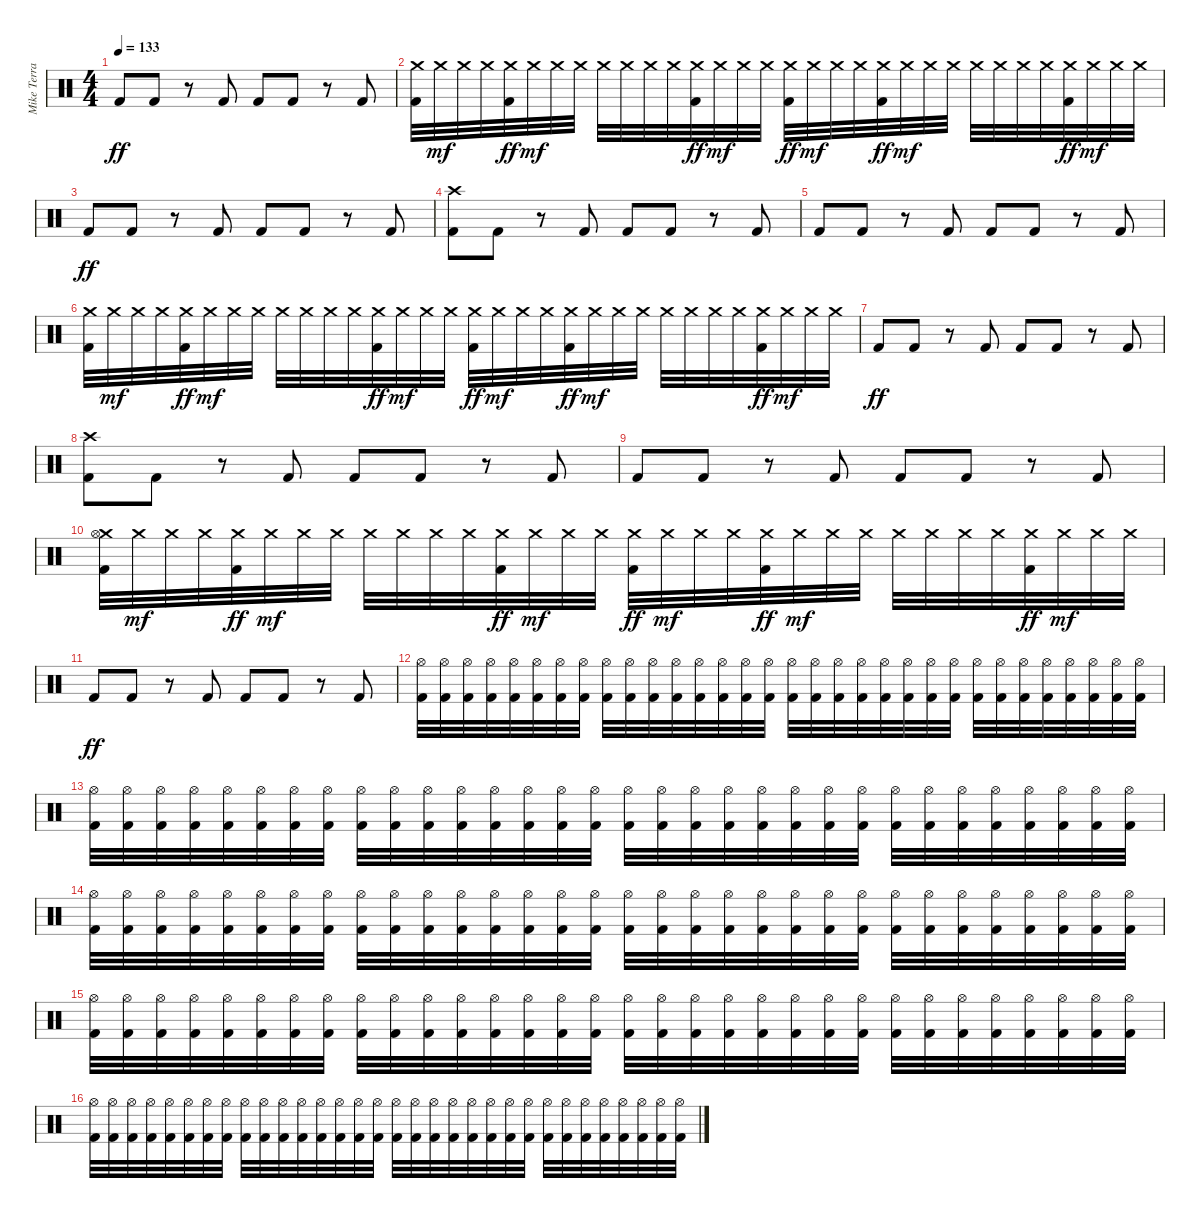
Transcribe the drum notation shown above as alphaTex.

\track ("Mike Terrana" "Mike Terra") {instrument percussion}
\staff {score}
\articulation defaults
\ts (4 4)
\tempo 133
\clef neutral
\ks c "Kick (hit) 2".8{dy ff} "Kick (hit) 2".8
r.8 "Kick (hit) 2".8 "Kick (hit) 2".8 "Kick (hit) 2".8 r.8 "Kick (hit) 2".8 |
("Crash medium (hit)" "Kick (hit) 2").32 "Crash medium (hit)".32{dy mf} "Crash medium (hit)".32 "Crash medium (hit)".32 ("Crash medium (hit)" "Kick (hit) 2").32{dy ff} "Crash medium (hit)".32{dy mf} "Crash medium (hit)".32 "Crash medium (hit)".32 "Crash medium (hit)".32 "Crash medium (hit)".32 "Crash medium (hit)".32 "Crash medium (hit)".32 ("Crash medium (hit)" "Kick (hit) 2").32{dy ff} "Crash medium (hit)".32{dy mf} "Crash medium (hit)".32 "Crash medium (hit)".32 ("Crash medium (hit)" "Kick (hit) 2").32{dy ff} "Crash medium (hit)".32{dy mf} "Crash medium (hit)".32 "Crash medium (hit)".32 ("Crash medium (hit)" "Kick (hit) 2").32{dy ff} "Crash medium (hit)".32{dy mf} "Crash medium (hit)".32 "Crash medium (hit)".32 "Crash medium (hit)".32 "Crash medium (hit)".32 "Crash medium (hit)".32 "Crash medium (hit)".32 ("Crash medium (hit)" "Kick (hit) 2").32{dy ff} "Crash medium (hit)".32{dy mf} "Crash medium (hit)".32 "Crash medium (hit)".32 |
"Kick (hit) 2".8{dy ff} "Kick (hit) 2".8 r.8 "Kick (hit) 2".8 "Kick (hit) 2".8 "Kick (hit) 2".8 r.8 "Kick (hit) 2".8 |
("Crash high (hit)" "Kick (hit) 2").8 "Kick (hit) 2".8 r.8 "Kick (hit) 2".8 "Kick (hit) 2".8 "Kick (hit) 2".8 r.8 "Kick (hit) 2".8 |
"Kick (hit) 2".8 "Kick (hit) 2".8 r.8 "Kick (hit) 2".8 "Kick (hit) 2".8 "Kick (hit) 2".8 r.8 "Kick (hit) 2".8 |
("Crash medium (hit)" "Kick (hit) 2").32 "Crash medium (hit)".32{dy mf} "Crash medium (hit)".32 "Crash medium (hit)".32 ("Crash medium (hit)" "Kick (hit) 2").32{dy ff} "Crash medium (hit)".32{dy mf} "Crash medium (hit)".32 "Crash medium (hit)".32 "Crash medium (hit)".32 "Crash medium (hit)".32 "Crash medium (hit)".32 "Crash medium (hit)".32 ("Crash medium (hit)" "Kick (hit) 2").32{dy ff} "Crash medium (hit)".32{dy mf} "Crash medium (hit)".32 "Crash medium (hit)".32 ("Crash medium (hit)" "Kick (hit) 2").32{dy ff} "Crash medium (hit)".32{dy mf} "Crash medium (hit)".32 "Crash medium (hit)".32 ("Crash medium (hit)" "Kick (hit) 2").32{dy ff} "Crash medium (hit)".32{dy mf} "Crash medium (hit)".32 "Crash medium (hit)".32 "Crash medium (hit)".32 "Crash medium (hit)".32 "Crash medium (hit)".32 "Crash medium (hit)".32 ("Crash medium (hit)" "Kick (hit) 2").32{dy ff} "Crash medium (hit)".32{dy mf} "Crash medium (hit)".32 "Crash medium (hit)".32 |
"Kick (hit) 2".8{dy ff} "Kick (hit) 2".8 r.8 "Kick (hit) 2".8 "Kick (hit) 2".8 "Kick (hit) 2".8 r.8 "Kick (hit) 2".8 |
("Crash high (hit)" "Kick (hit) 2").8 "Kick (hit) 2".8 r.8 "Kick (hit) 2".8 "Kick (hit) 2".8 "Kick (hit) 2".8 r.8 "Kick (hit) 2".8 |
"Kick (hit) 2".8 "Kick (hit) 2".8 r.8 "Kick (hit) 2".8 "Kick (hit) 2".8 "Kick (hit) 2".8 r.8 "Kick (hit) 2".8 |
("Crash medium (hit)" "Hi-Hat (open)" "Kick (hit) 2").32 "Crash medium (hit)".32{dy mf} "Crash medium (hit)".32 "Crash medium (hit)".32 ("Crash medium (hit)" "Kick (hit) 2").32{dy ff} "Crash medium (hit)".32{dy mf} "Crash medium (hit)".32 "Crash medium (hit)".32 "Crash medium (hit)".32 "Crash medium (hit)".32 "Crash medium (hit)".32 "Crash medium (hit)".32 ("Crash medium (hit)" "Kick (hit) 2").32{dy ff} "Crash medium (hit)".32{dy mf} "Crash medium (hit)".32 "Crash medium (hit)".32 ("Crash medium (hit)" "Kick (hit) 2").32{dy ff} "Crash medium (hit)".32{dy mf} "Crash medium (hit)".32 "Crash medium (hit)".32 ("Crash medium (hit)" "Kick (hit) 2").32{dy ff} "Crash medium (hit)".32{dy mf} "Crash medium (hit)".32 "Crash medium (hit)".32 "Crash medium (hit)".32 "Crash medium (hit)".32 "Crash medium (hit)".32 "Crash medium (hit)".32 ("Crash medium (hit)" "Kick (hit) 2").32{dy ff} "Crash medium (hit)".32{dy mf} "Crash medium (hit)".32 "Crash medium (hit)".32 |
"Kick (hit) 2".8{dy ff} "Kick (hit) 2".8 r.8 "Kick (hit) 2".8 "Kick (hit) 2".8 "Kick (hit) 2".8 r.8 "Kick (hit) 2".8 |
("Hi-Hat (open)" "Kick (hit) 2").32 ("Hi-Hat (open)" "Kick (hit) 2").32 ("Hi-Hat (open)" "Kick (hit) 2").32 ("Hi-Hat (open)" "Kick (hit) 2").32 ("Hi-Hat (open)" "Kick (hit) 2").32 ("Hi-Hat (open)" "Kick (hit) 2").32 ("Hi-Hat (open)" "Kick (hit) 2").32 ("Hi-Hat (open)" "Kick (hit) 2").32 ("Hi-Hat (open)" "Kick (hit) 2").32 ("Hi-Hat (open)" "Kick (hit) 2").32 ("Hi-Hat (open)" "Kick (hit) 2").32 ("Hi-Hat (open)" "Kick (hit) 2").32 ("Hi-Hat (open)" "Kick (hit) 2").32 ("Hi-Hat (open)" "Kick (hit) 2").32 ("Hi-Hat (open)" "Kick (hit) 2").32 ("Hi-Hat (open)" "Kick (hit) 2").32 ("Hi-Hat (open)" "Kick (hit) 2").32 ("Hi-Hat (open)" "Kick (hit) 2").32 ("Hi-Hat (open)" "Kick (hit) 2").32 ("Hi-Hat (open)" "Kick (hit) 2").32 ("Hi-Hat (open)" "Kick (hit) 2").32 ("Hi-Hat (open)" "Kick (hit) 2").32 ("Hi-Hat (open)" "Kick (hit) 2").32 ("Hi-Hat (open)" "Kick (hit) 2").32 ("Hi-Hat (open)" "Kick (hit) 2").32 ("Hi-Hat (open)" "Kick (hit) 2").32 ("Hi-Hat (open)" "Kick (hit) 2").32 ("Hi-Hat (open)" "Kick (hit) 2").32 ("Hi-Hat (open)" "Kick (hit) 2").32 ("Hi-Hat (open)" "Kick (hit) 2").32 ("Hi-Hat (open)" "Kick (hit) 2").32 ("Hi-Hat (open)" "Kick (hit) 2").32 |
("Hi-Hat (open)" "Kick (hit) 2").32 ("Hi-Hat (open)" "Kick (hit) 2").32 ("Hi-Hat (open)" "Kick (hit) 2").32 ("Hi-Hat (open)" "Kick (hit) 2").32 ("Hi-Hat (open)" "Kick (hit) 2").32 ("Hi-Hat (open)" "Kick (hit) 2").32 ("Hi-Hat (open)" "Kick (hit) 2").32 ("Hi-Hat (open)" "Kick (hit) 2").32 ("Hi-Hat (open)" "Kick (hit) 2").32 ("Hi-Hat (open)" "Kick (hit) 2").32 ("Hi-Hat (open)" "Kick (hit) 2").32 ("Hi-Hat (open)" "Kick (hit) 2").32 ("Hi-Hat (open)" "Kick (hit) 2").32 ("Hi-Hat (open)" "Kick (hit) 2").32 ("Hi-Hat (open)" "Kick (hit) 2").32 ("Hi-Hat (open)" "Kick (hit) 2").32 ("Hi-Hat (open)" "Kick (hit) 2").32 ("Hi-Hat (open)" "Kick (hit) 2").32 ("Hi-Hat (open)" "Kick (hit) 2").32 ("Hi-Hat (open)" "Kick (hit) 2").32 ("Hi-Hat (open)" "Kick (hit) 2").32 ("Hi-Hat (open)" "Kick (hit) 2").32 ("Hi-Hat (open)" "Kick (hit) 2").32 ("Hi-Hat (open)" "Kick (hit) 2").32 ("Hi-Hat (open)" "Kick (hit) 2").32 ("Hi-Hat (open)" "Kick (hit) 2").32 ("Hi-Hat (open)" "Kick (hit) 2").32 ("Hi-Hat (open)" "Kick (hit) 2").32 ("Hi-Hat (open)" "Kick (hit) 2").32 ("Hi-Hat (open)" "Kick (hit) 2").32 ("Hi-Hat (open)" "Kick (hit) 2").32 ("Hi-Hat (open)" "Kick (hit) 2").32 |
("Hi-Hat (open)" "Kick (hit) 2").32 ("Hi-Hat (open)" "Kick (hit) 2").32 ("Hi-Hat (open)" "Kick (hit) 2").32 ("Hi-Hat (open)" "Kick (hit) 2").32 ("Hi-Hat (open)" "Kick (hit) 2").32 ("Hi-Hat (open)" "Kick (hit) 2").32 ("Hi-Hat (open)" "Kick (hit) 2").32 ("Hi-Hat (open)" "Kick (hit) 2").32 ("Hi-Hat (open)" "Kick (hit) 2").32 ("Hi-Hat (open)" "Kick (hit) 2").32 ("Hi-Hat (open)" "Kick (hit) 2").32 ("Hi-Hat (open)" "Kick (hit) 2").32 ("Hi-Hat (open)" "Kick (hit) 2").32 ("Hi-Hat (open)" "Kick (hit) 2").32 ("Hi-Hat (open)" "Kick (hit) 2").32 ("Hi-Hat (open)" "Kick (hit) 2").32 ("Hi-Hat (open)" "Kick (hit) 2").32 ("Hi-Hat (open)" "Kick (hit) 2").32 ("Hi-Hat (open)" "Kick (hit) 2").32 ("Hi-Hat (open)" "Kick (hit) 2").32 ("Hi-Hat (open)" "Kick (hit) 2").32 ("Hi-Hat (open)" "Kick (hit) 2").32 ("Hi-Hat (open)" "Kick (hit) 2").32 ("Hi-Hat (open)" "Kick (hit) 2").32 ("Hi-Hat (open)" "Kick (hit) 2").32 ("Hi-Hat (open)" "Kick (hit) 2").32 ("Hi-Hat (open)" "Kick (hit) 2").32 ("Hi-Hat (open)" "Kick (hit) 2").32 ("Hi-Hat (open)" "Kick (hit) 2").32 ("Hi-Hat (open)" "Kick (hit) 2").32 ("Hi-Hat (open)" "Kick (hit) 2").32 ("Hi-Hat (open)" "Kick (hit) 2").32 |
("Hi-Hat (open)" "Kick (hit) 2").32 ("Hi-Hat (open)" "Kick (hit) 2").32 ("Hi-Hat (open)" "Kick (hit) 2").32 ("Hi-Hat (open)" "Kick (hit) 2").32 ("Hi-Hat (open)" "Kick (hit) 2").32 ("Hi-Hat (open)" "Kick (hit) 2").32 ("Hi-Hat (open)" "Kick (hit) 2").32 ("Hi-Hat (open)" "Kick (hit) 2").32 ("Hi-Hat (open)" "Kick (hit) 2").32 ("Hi-Hat (open)" "Kick (hit) 2").32 ("Hi-Hat (open)" "Kick (hit) 2").32 ("Hi-Hat (open)" "Kick (hit) 2").32 ("Hi-Hat (open)" "Kick (hit) 2").32 ("Hi-Hat (open)" "Kick (hit) 2").32 ("Hi-Hat (open)" "Kick (hit) 2").32 ("Hi-Hat (open)" "Kick (hit) 2").32 ("Hi-Hat (open)" "Kick (hit) 2").32 ("Hi-Hat (open)" "Kick (hit) 2").32 ("Hi-Hat (open)" "Kick (hit) 2").32 ("Hi-Hat (open)" "Kick (hit) 2").32 ("Hi-Hat (open)" "Kick (hit) 2").32 ("Hi-Hat (open)" "Kick (hit) 2").32 ("Hi-Hat (open)" "Kick (hit) 2").32 ("Hi-Hat (open)" "Kick (hit) 2").32 ("Hi-Hat (open)" "Kick (hit) 2").32 ("Hi-Hat (open)" "Kick (hit) 2").32 ("Hi-Hat (open)" "Kick (hit) 2").32 ("Hi-Hat (open)" "Kick (hit) 2").32 ("Hi-Hat (open)" "Kick (hit) 2").32 ("Hi-Hat (open)" "Kick (hit) 2").32 ("Hi-Hat (open)" "Kick (hit) 2").32 ("Hi-Hat (open)" "Kick (hit) 2").32 |
("Hi-Hat (open)" "Kick (hit) 2").32 ("Hi-Hat (open)" "Kick (hit) 2").32 ("Hi-Hat (open)" "Kick (hit) 2").32 ("Hi-Hat (open)" "Kick (hit) 2").32 ("Hi-Hat (open)" "Kick (hit) 2").32 ("Hi-Hat (open)" "Kick (hit) 2").32 ("Hi-Hat (open)" "Kick (hit) 2").32 ("Hi-Hat (open)" "Kick (hit) 2").32 ("Hi-Hat (open)" "Kick (hit) 2").32 ("Hi-Hat (open)" "Kick (hit) 2").32 ("Hi-Hat (open)" "Kick (hit) 2").32 ("Hi-Hat (open)" "Kick (hit) 2").32 ("Hi-Hat (open)" "Kick (hit) 2").32 ("Hi-Hat (open)" "Kick (hit) 2").32 ("Hi-Hat (open)" "Kick (hit) 2").32 ("Hi-Hat (open)" "Kick (hit) 2").32 ("Hi-Hat (open)" "Kick (hit) 2").32 ("Hi-Hat (open)" "Kick (hit) 2").32 ("Hi-Hat (open)" "Kick (hit) 2").32 ("Hi-Hat (open)" "Kick (hit) 2").32 ("Hi-Hat (open)" "Kick (hit) 2").32 ("Hi-Hat (open)" "Kick (hit) 2").32 ("Hi-Hat (open)" "Kick (hit) 2").32 ("Hi-Hat (open)" "Kick (hit) 2").32 ("Hi-Hat (open)" "Kick (hit) 2").32 ("Hi-Hat (open)" "Kick (hit) 2").32 ("Hi-Hat (open)" "Kick (hit) 2").32 ("Hi-Hat (open)" "Kick (hit) 2").32 ("Hi-Hat (open)" "Kick (hit) 2").32 ("Hi-Hat (open)" "Kick (hit) 2").32 ("Hi-Hat (open)" "Kick (hit) 2").32 ("Hi-Hat (open)" "Kick (hit) 2").32
